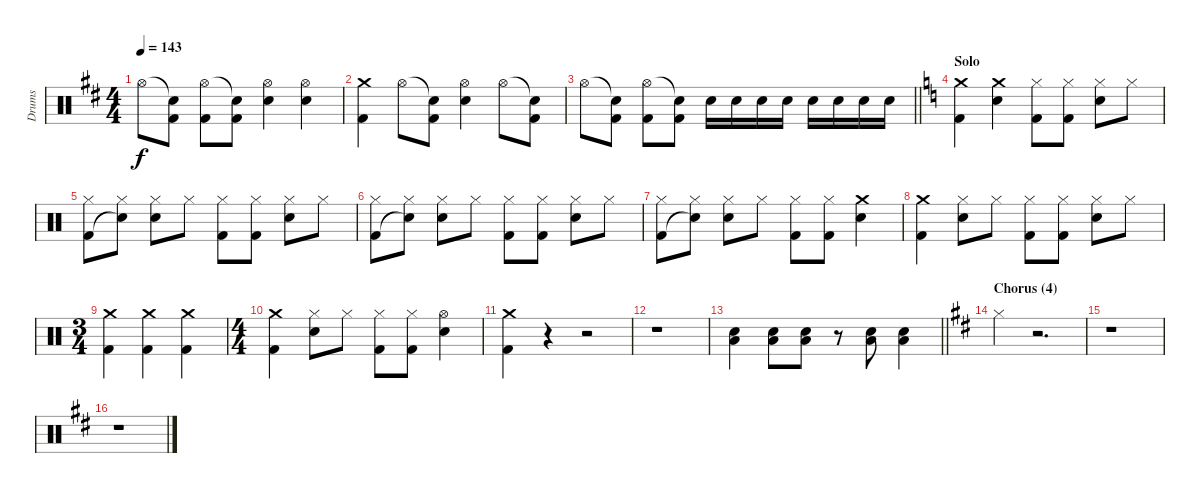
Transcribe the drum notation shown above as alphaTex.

\track ("Drums" "Drums") {instrument percussion}
\staff {score}
\articulation defaults
\ts (4 4)
\tempo 143
\clef neutral
\ks d "Hi-Hat (open)".8{dy f}
("Snare (hit)"{t} "Kick (hit) 2").8 ("Hi-Hat (open)" "Kick (hit) 2").8 ("Snare (hit)"{t} "Kick (hit) 2").8 ("Hi-Hat (open)" "Electric Snare (hit)").4 ("Hi-Hat (open)" "Electric Snare (hit)").4 |
("Crash medium (hit)" "Kick (hit) 2").4 "Hi-Hat (open)".8 ("Snare (hit)"{t} "Kick (hit) 2").8 ("Hi-Hat (open)" "Electric Snare (hit)").4 "Hi-Hat (open)".8 ("Snare (hit)"{t} "Kick (hit) 2").8 |
\barLineRight lightlight "Hi-Hat (open)".8
("Snare (hit)"{t} "Kick (hit) 2").8 ("Hi-Hat (open)" "Kick (hit) 2").8 ("Snare (hit)"{t} "Kick (hit) 2").8 "Electric Snare (hit)".16 "Electric Snare (hit)".16 "Electric Snare (hit)".16 "Electric Snare (hit)".16 "Electric Snare (hit)".16 "Electric Snare (hit)".16 "Electric Snare (hit)".16 "Electric Snare (hit)".16 |
\section ("" "Solo")
\ks aminor
("Crash medium (hit)" "Kick (hit) 2").4 ("Crash medium (hit)" "Electric Snare (hit)").4 ("Hi-Hat (closed)" "Kick (hit) 2").8 ("Hi-Hat (closed)" "Kick (hit) 2").8 ("Hi-Hat (closed)" "Electric Snare (hit)").8 "Hi-Hat (closed)".8 |
("Hi-Hat (closed)" "Kick (hit) 2").8 ("Hi-Hat (closed)" "Snare (hit)"{t}).8 ("Hi-Hat (closed)" "Electric Snare (hit)").8 "Hi-Hat (closed)".8 ("Hi-Hat (closed)" "Kick (hit) 2").8 ("Hi-Hat (closed)" "Kick (hit) 2").8 ("Hi-Hat (closed)" "Electric Snare (hit)").8 "Hi-Hat (closed)".8 |
("Hi-Hat (closed)" "Kick (hit) 2").8 ("Hi-Hat (closed)" "Snare (hit)"{t}).8 ("Hi-Hat (closed)" "Electric Snare (hit)").8 "Hi-Hat (closed)".8 ("Hi-Hat (closed)" "Kick (hit) 2").8 ("Hi-Hat (closed)" "Kick (hit) 2").8 ("Hi-Hat (closed)" "Electric Snare (hit)").8 "Hi-Hat (closed)".8 |
("Hi-Hat (closed)" "Kick (hit) 2").8 ("Hi-Hat (closed)" "Snare (hit)"{t}).8 ("Hi-Hat (closed)" "Electric Snare (hit)").8 "Hi-Hat (closed)".8 ("Hi-Hat (closed)" "Kick (hit) 2").8 ("Hi-Hat (closed)" "Kick (hit) 2").8 ("Crash medium (hit)" "Electric Snare (hit)").4 |
("Crash medium (hit)" "Kick (hit) 2").4 ("Hi-Hat (closed)" "Electric Snare (hit)").8 "Hi-Hat (closed)".8 ("Hi-Hat (closed)" "Kick (hit) 2").8 ("Hi-Hat (closed)" "Kick (hit) 2").8 ("Hi-Hat (closed)" "Electric Snare (hit)").8 "Hi-Hat (closed)".8 |
\ts (3 4)
("Crash medium (hit)" "Kick (hit) 2").4 ("Crash medium (hit)" "Kick (hit) 2").4 ("Crash medium (hit)" "Kick (hit) 2").4 |
\ts (4 4)
("Crash medium (hit)" "Kick (hit) 2").4 ("Hi-Hat (closed)" "Electric Snare (hit)").8 "Hi-Hat (closed)".8 ("Hi-Hat (closed)" "Kick (hit) 2").8 ("Hi-Hat (closed)" "Kick (hit) 2").8 ("Hi-Hat (open)" "Electric Snare (hit)").4 |
("Crash medium (hit)" "Kick (hit) 2").4 r.4 r.2 |
r.1 |
\barLineRight lightlight
("Electric Snare (hit)" "Low Floor Tom (hit)").4 ("Electric Snare (hit)" "Low Floor Tom (hit)").8 ("Electric Snare (hit)" "Low Floor Tom (hit)").8 r.8 ("Electric Snare (hit)" "Low Floor Tom (hit)").8 ("Electric Snare (hit)" "Low Floor Tom (hit)").4 |
\section ("" "Chorus (4)")
\ks d "Hi-Hat (closed)".4
r.2{d} |
r.1 |
r.1
